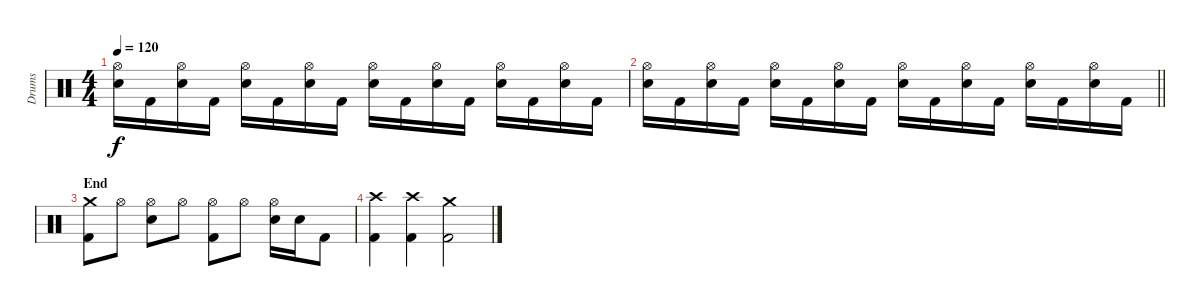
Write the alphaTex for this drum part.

\track ("Drums" "Drums") {instrument percussion}
\staff {score}
\articulation defaults
\ts (4 4)
\tempo 120
\clef neutral
\ks c
("Hi-Hat (open)" "Electric Snare (hit)").16{dy f} "Kick (hit) 2".16 ("Hi-Hat (open)" "Electric Snare (hit)").16 "Kick (hit) 2".16 ("Hi-Hat (open)" "Electric Snare (hit)").16 "Kick (hit) 2".16 ("Hi-Hat (open)" "Electric Snare (hit)").16 "Kick (hit) 2".16 ("Hi-Hat (open)" "Electric Snare (hit)").16 "Kick (hit) 2".16 ("Hi-Hat (open)" "Electric Snare (hit)").16 "Kick (hit) 2".16 ("Hi-Hat (open)" "Electric Snare (hit)").16 "Kick (hit) 2".16 ("Hi-Hat (open)" "Electric Snare (hit)").16 "Kick (hit) 2".16 |
\barLineRight lightlight
("Hi-Hat (open)" "Electric Snare (hit)").16 "Kick (hit) 2".16 ("Hi-Hat (open)" "Electric Snare (hit)").16 "Kick (hit) 2".16 ("Hi-Hat (open)" "Electric Snare (hit)").16 "Kick (hit) 2".16 ("Hi-Hat (open)" "Electric Snare (hit)").16 "Kick (hit) 2".16 ("Hi-Hat (open)" "Electric Snare (hit)").16 "Kick (hit) 2".16 ("Hi-Hat (open)" "Electric Snare (hit)").16 "Kick (hit) 2".16 ("Hi-Hat (open)" "Electric Snare (hit)").16 "Kick (hit) 2".16 ("Hi-Hat (open)" "Electric Snare (hit)").16 "Kick (hit) 2".16 |
\section ("" "End")
("Crash medium (hit)" "Kick (hit) 2").8 "Hi-Hat (open)".8 ("Hi-Hat (open)" "Electric Snare (hit)").8 "Hi-Hat (open)".8 ("Hi-Hat (open)" "Kick (hit) 2").8 "Hi-Hat (open)".8 ("Hi-Hat (open)" "Electric Snare (hit)").16 "Electric Snare (hit)".16 "Kick (hit) 2".8 |
("Crash high (hit)" "Kick (hit) 2").4 ("Crash high (hit)" "Kick (hit) 2").4 ("Crash medium (hit)" "Kick (hit) 2").2
